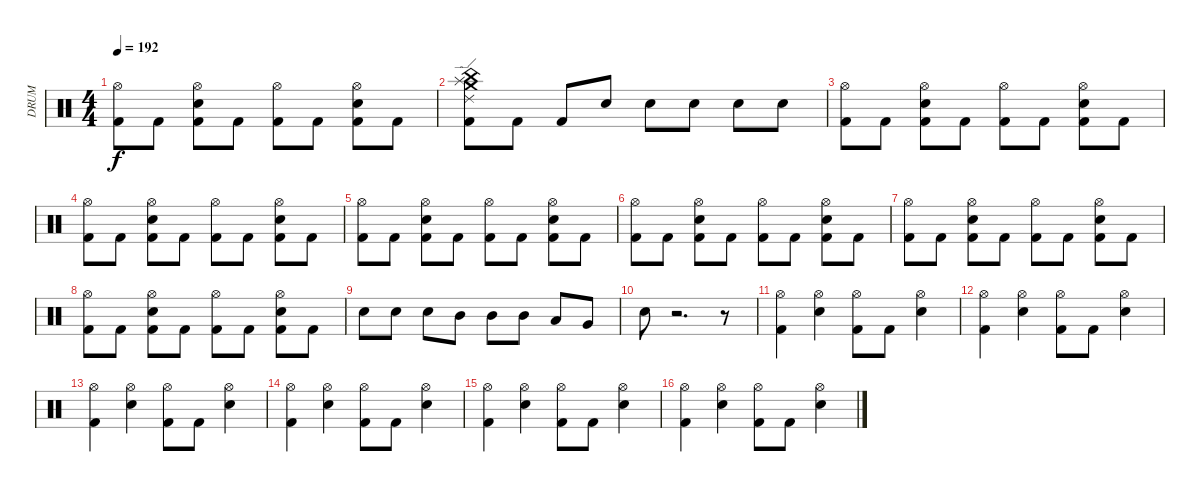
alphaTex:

\track ("     DRUM" "     DRUM") {instrument percussion}
\staff {score}
\articulation defaults
\ts (4 4)
\tempo 192
\clef neutral
\ks c
("Hi-Hat (open)" "Kick (hit) 2").8{dy f} "Kick (hit) 2".8 ("Electric Snare (hit)" "Hi-Hat (open)" "Kick (hit) 2").8 "Kick (hit) 2".8 ("Hi-Hat (open)" "Kick (hit) 2").8 "Kick (hit) 2".8 ("Electric Snare (hit)" "Hi-Hat (open)" "Kick (hit) 2").8 "Kick (hit) 2".8 |
("Ride (edge) 2" "Crash medium (hit)" "Splash (hit)" "China (hit)" "Kick (hit) 2").8 "Kick (hit) 2".8 "Kick (hit) 2".8 "Electric Snare (hit)".8{volume 6} "Electric Snare (hit)".8{volume 7} "Electric Snare (hit)".8{volume 8} "Electric Snare (hit)".8{volume 9} "Electric Snare (hit)".8{volume 10} |
("Hi-Hat (open)" "Kick (hit) 2").8{volume 11} "Kick (hit) 2".8 ("Electric Snare (hit)" "Hi-Hat (open)" "Kick (hit) 2").8 "Kick (hit) 2".8 ("Hi-Hat (open)" "Kick (hit) 2").8 "Kick (hit) 2".8 ("Electric Snare (hit)" "Hi-Hat (open)" "Kick (hit) 2").8 "Kick (hit) 2".8 |
("Hi-Hat (open)" "Kick (hit) 2").8 "Kick (hit) 2".8 ("Electric Snare (hit)" "Hi-Hat (open)" "Kick (hit) 2").8 "Kick (hit) 2".8 ("Hi-Hat (open)" "Kick (hit) 2").8 "Kick (hit) 2".8 ("Electric Snare (hit)" "Hi-Hat (open)" "Kick (hit) 2").8 "Kick (hit) 2".8 |
("Hi-Hat (open)" "Kick (hit) 2").8 "Kick (hit) 2".8 ("Electric Snare (hit)" "Hi-Hat (open)" "Kick (hit) 2").8 "Kick (hit) 2".8 ("Hi-Hat (open)" "Kick (hit) 2").8 "Kick (hit) 2".8 ("Electric Snare (hit)" "Hi-Hat (open)" "Kick (hit) 2").8 "Kick (hit) 2".8 |
("Hi-Hat (open)" "Kick (hit) 2").8 "Kick (hit) 2".8 ("Electric Snare (hit)" "Hi-Hat (open)" "Kick (hit) 2").8 "Kick (hit) 2".8 ("Hi-Hat (open)" "Kick (hit) 2").8 "Kick (hit) 2".8 ("Electric Snare (hit)" "Hi-Hat (open)" "Kick (hit) 2").8 "Kick (hit) 2".8 |
("Hi-Hat (open)" "Kick (hit) 2").8 "Kick (hit) 2".8 ("Electric Snare (hit)" "Hi-Hat (open)" "Kick (hit) 2").8 "Kick (hit) 2".8 ("Hi-Hat (open)" "Kick (hit) 2").8 "Kick (hit) 2".8 ("Electric Snare (hit)" "Hi-Hat (open)" "Kick (hit) 2").8 "Kick (hit) 2".8 |
("Hi-Hat (open)" "Kick (hit) 2").8 "Kick (hit) 2".8 ("Electric Snare (hit)" "Hi-Hat (open)" "Kick (hit) 2").8 "Kick (hit) 2".8 ("Hi-Hat (open)" "Kick (hit) 2").8 "Kick (hit) 2".8 ("Electric Snare (hit)" "Hi-Hat (open)" "Kick (hit) 2").8 "Kick (hit) 2".8 |
"Electric Snare (hit)".8 "Electric Snare (hit)".8 "Electric Snare (hit)".8 "Mid Tom (hit)".8 "Mid Tom (hit)".8 "Mid Tom (hit)".8 "Low Tom (hit)".8 "Very Low Tom (hit)".8 |
"Electric Snare (hit)".8 r.2{d} r.8 |
("Hi-Hat (open)" "Kick (hit) 2").4 ("Hi-Hat (open)" "Electric Snare (hit)").4 ("Hi-Hat (open)" "Kick (hit) 2").8 "Kick (hit) 2".8 ("Hi-Hat (open)" "Electric Snare (hit)").4 |
("Hi-Hat (open)" "Kick (hit) 2").4 ("Hi-Hat (open)" "Electric Snare (hit)").4 ("Hi-Hat (open)" "Kick (hit) 2").8 "Kick (hit) 2".8 ("Hi-Hat (open)" "Electric Snare (hit)").4 |
("Hi-Hat (open)" "Kick (hit) 2").4 ("Hi-Hat (open)" "Electric Snare (hit)").4 ("Hi-Hat (open)" "Kick (hit) 2").8 "Kick (hit) 2".8 ("Hi-Hat (open)" "Electric Snare (hit)").4 |
("Hi-Hat (open)" "Kick (hit) 2").4 ("Hi-Hat (open)" "Electric Snare (hit)").4 ("Hi-Hat (open)" "Kick (hit) 2").8 "Kick (hit) 2".8 ("Hi-Hat (open)" "Electric Snare (hit)").4 |
("Hi-Hat (open)" "Kick (hit) 2").4 ("Hi-Hat (open)" "Electric Snare (hit)").4 ("Hi-Hat (open)" "Kick (hit) 2").8 "Kick (hit) 2".8 ("Hi-Hat (open)" "Electric Snare (hit)").4 |
("Hi-Hat (open)" "Kick (hit) 2").4 ("Hi-Hat (open)" "Electric Snare (hit)").4 ("Hi-Hat (open)" "Kick (hit) 2").8 "Kick (hit) 2".8 ("Hi-Hat (open)" "Electric Snare (hit)").4
